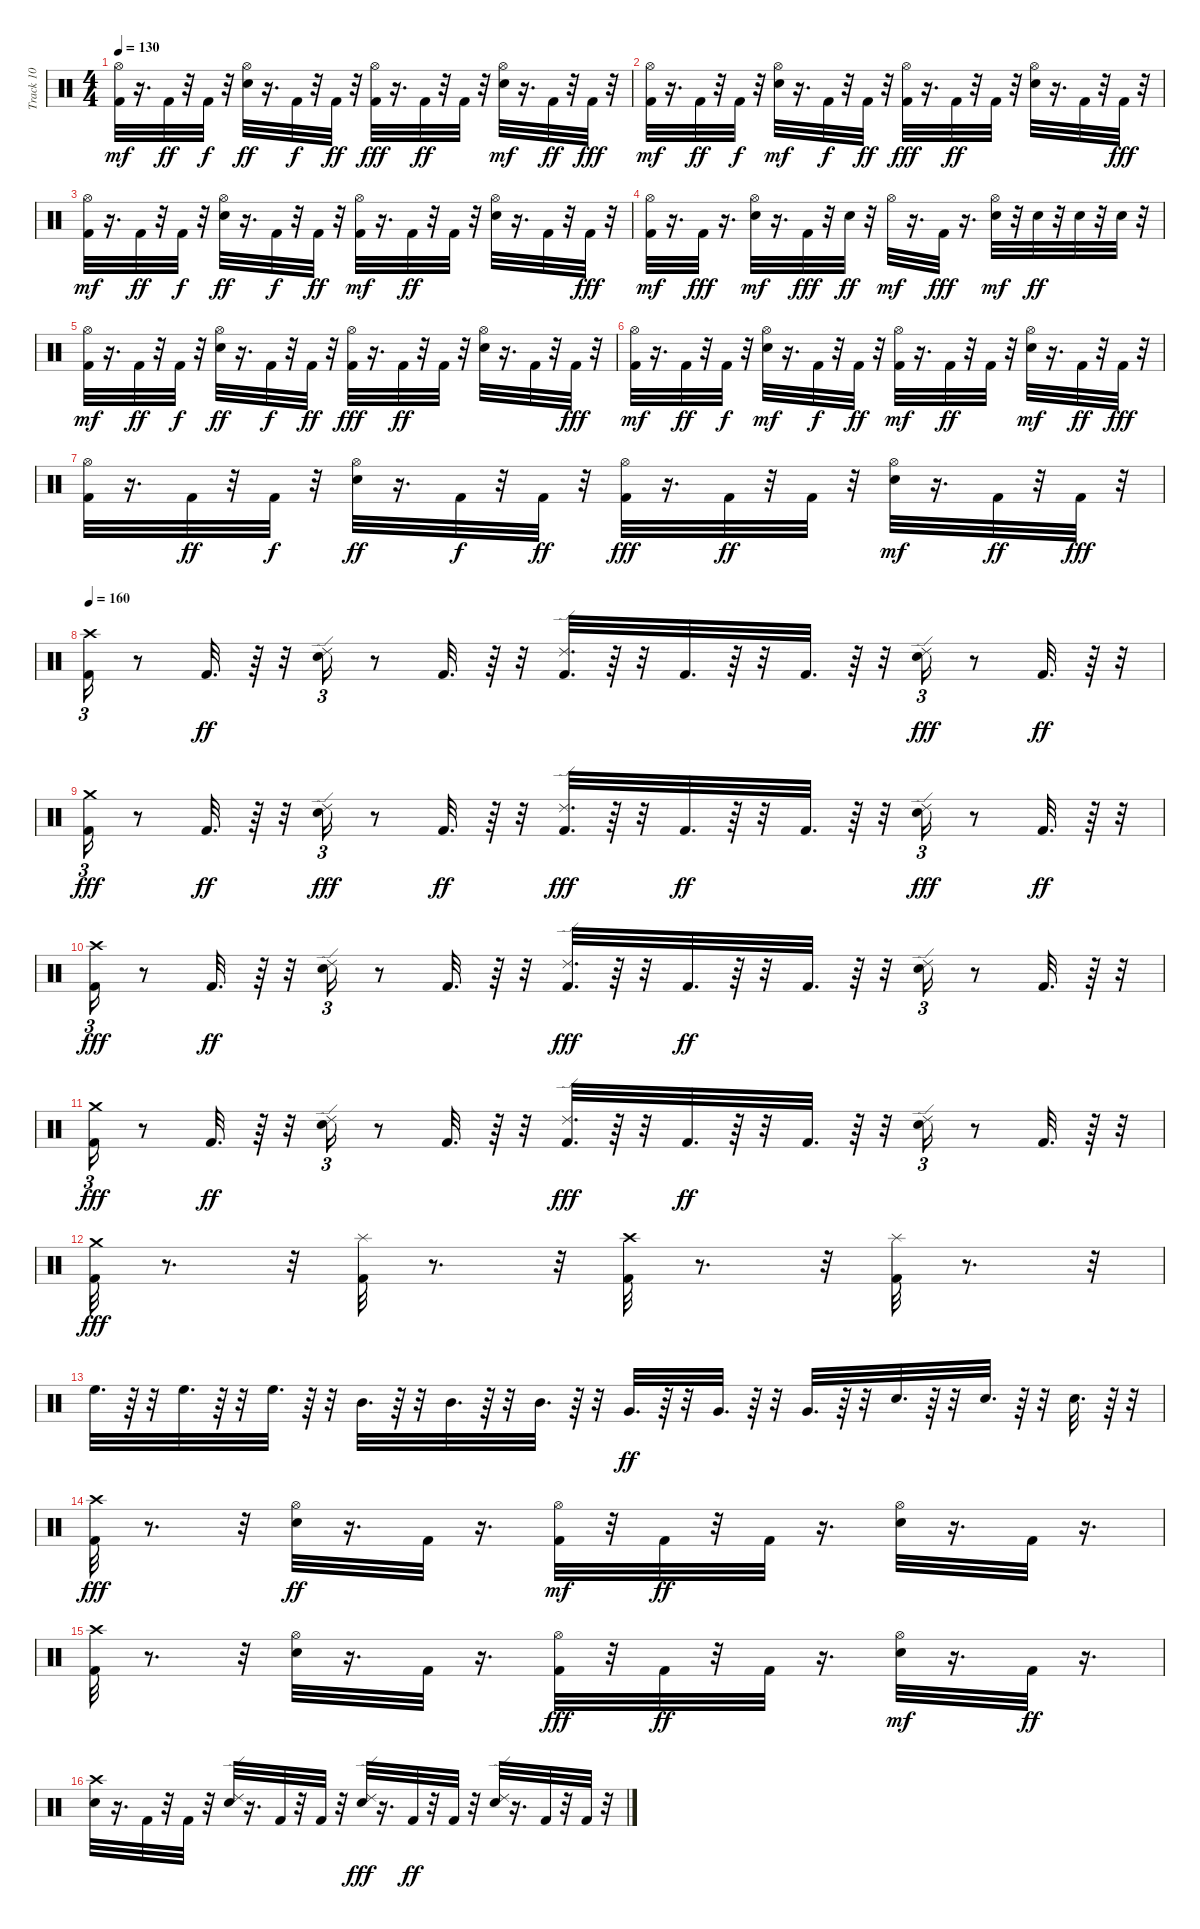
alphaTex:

\track ("Track 10" "Track 10") {instrument percussion}
\staff {score}
\articulation defaults
\ts (4 4)
\tempo 130
\clef neutral
\ks c
("Kick (hit) 2" "Hi-Hat (open)").32{dy mf} r.16{d} "Kick (hit) 2".32{dy ff} r.32 "Kick (hit) 2".32{dy f} r.32 ("Hi-Hat (open)" "Electric Snare (hit)").32{dy ff} r.16{d} "Kick (hit) 2".32{dy f} r.32 "Kick (hit) 2".32{dy ff} r.32 ("Hi-Hat (open)" "Kick (hit) 2").32{dy fff} r.16{d} "Kick (hit) 2".32{dy ff} r.32 "Kick (hit) 2".32 r.32 ("Electric Snare (hit)" "Hi-Hat (open)").32{dy mf} r.16{d} "Kick (hit) 2".32{dy ff} r.32 "Kick (hit) 2".32{dy fff} r.32 |
("Kick (hit) 2" "Hi-Hat (open)").32{dy mf} r.16{d} "Kick (hit) 2".32{dy ff} r.32 "Kick (hit) 2".32{dy f} r.32 ("Electric Snare (hit)" "Hi-Hat (open)").32{dy mf} r.16{d} "Kick (hit) 2".32{dy f} r.32 "Kick (hit) 2".32{dy ff} r.32 ("Hi-Hat (open)" "Kick (hit) 2").32{dy fff} r.16{d} "Kick (hit) 2".32{dy ff} r.32 "Kick (hit) 2".32 r.32 ("Hi-Hat (open)" "Electric Snare (hit)").32 r.16{d} "Kick (hit) 2".32 r.32 "Kick (hit) 2".32{dy fff} r.32 |
("Kick (hit) 2" "Hi-Hat (open)").32{dy mf} r.16{d} "Kick (hit) 2".32{dy ff} r.32 "Kick (hit) 2".32{dy f} r.32 ("Hi-Hat (open)" "Electric Snare (hit)").32{dy ff} r.16{d} "Kick (hit) 2".32{dy f} r.32 "Kick (hit) 2".32{dy ff} r.32 ("Kick (hit) 2" "Hi-Hat (open)").32{dy mf} r.16{d} "Kick (hit) 2".32{dy ff} r.32 "Kick (hit) 2".32 r.32 ("Hi-Hat (open)" "Electric Snare (hit)").32 r.16{d} "Kick (hit) 2".32 r.32 "Kick (hit) 2".32{dy fff} r.32 |
("Kick (hit) 2" "Hi-Hat (open)").32{dy mf} r.16{d} "Kick (hit) 2".32{dy fff} r.16{d} ("Electric Snare (hit)" "Hi-Hat (open)").32{dy mf} r.16{d} "Kick (hit) 2".32{dy fff} r.32 "Electric Snare (hit)".32{dy ff} r.32 "Hi-Hat (open)".32{dy mf} r.16{d} "Kick (hit) 2".32{dy fff} r.16{d} ("Electric Snare (hit)" "Hi-Hat (open)").32{dy mf} r.32 "Electric Snare (hit)".32{dy ff} r.32 "Electric Snare (hit)".32 r.32 "Electric Snare (hit)".32 r.32 |
("Kick (hit) 2" "Hi-Hat (open)").32{dy mf} r.16{d} "Kick (hit) 2".32{dy ff} r.32 "Kick (hit) 2".32{dy f} r.32 ("Hi-Hat (open)" "Electric Snare (hit)").32{dy ff} r.16{d} "Kick (hit) 2".32{dy f} r.32 "Kick (hit) 2".32{dy ff} r.32 ("Hi-Hat (open)" "Kick (hit) 2").32{dy fff} r.16{d} "Kick (hit) 2".32{dy ff} r.32 "Kick (hit) 2".32 r.32 ("Hi-Hat (open)" "Electric Snare (hit)").32 r.16{d} "Kick (hit) 2".32 r.32 "Kick (hit) 2".32{dy fff} r.32 |
("Kick (hit) 2" "Hi-Hat (open)").32{dy mf} r.16{d} "Kick (hit) 2".32{dy ff} r.32 "Kick (hit) 2".32{dy f} r.32 ("Electric Snare (hit)" "Hi-Hat (open)").32{dy mf} r.16{d} "Kick (hit) 2".32{dy f} r.32 "Kick (hit) 2".32{dy ff} r.32 ("Kick (hit) 2" "Hi-Hat (open)").32{dy mf} r.16{d} "Kick (hit) 2".32{dy ff} r.32 "Kick (hit) 2".32 r.32 ("Electric Snare (hit)" "Hi-Hat (open)").32{dy mf} r.16{d} "Kick (hit) 2".32{dy ff} r.32 "Kick (hit) 2".32{dy fff} r.32 |
("Hi-Hat (open)" "Kick (hit) 2").32 r.16{d} "Kick (hit) 2".32{dy ff} r.32 "Kick (hit) 2".32{dy f} r.32 ("Hi-Hat (open)" "Electric Snare (hit)").32{dy ff} r.16{d} "Kick (hit) 2".32{dy f} r.32 "Kick (hit) 2".32{dy ff} r.32 ("Hi-Hat (open)" "Kick (hit) 2").32{dy fff} r.16{d} "Kick (hit) 2".32{dy ff} r.32 "Kick (hit) 2".32 r.32 ("Electric Snare (hit)" "Hi-Hat (open)").32{dy mf} r.16{d} "Kick (hit) 2".32{dy ff} r.32 "Kick (hit) 2".32{dy fff} r.32 |
\tempo 160
("Crash high (hit)" "Kick (hit) 2").16{tu (3 2)} r.8 "Kick (hit) 2".32{d dy ff} r.64 r.32 ("Ride (edge) 2" "Electric Snare (hit)").16{tu (3 2)} r.8 "Kick (hit) 2".32{d} r.64 r.32 ("Ride (edge) 2" "Kick (hit) 2").32{d} r.64 r.32 "Kick (hit) 2".32{d} r.64 r.32 "Kick (hit) 2".32{d} r.64 r.32 ("Electric Snare (hit)" "Ride (edge) 2").16{tu (3 2) dy fff} r.8 "Kick (hit) 2".32{d dy ff} r.64 r.32 |
("Kick (hit) 2" "Crash medium (hit)").16{tu (3 2) dy fff} r.8 "Kick (hit) 2".32{d dy ff} r.64 r.32 ("Electric Snare (hit)" "Ride (edge) 2").16{tu (3 2) dy fff} r.8 "Kick (hit) 2".32{d dy ff} r.64 r.32 ("Kick (hit) 2" "Ride (edge) 2").32{d dy fff} r.64 r.32 "Kick (hit) 2".32{d dy ff} r.64 r.32 "Kick (hit) 2".32{d} r.64 r.32 ("Electric Snare (hit)" "Ride (edge) 2").16{tu (3 2) dy fff} r.8 "Kick (hit) 2".32{d dy ff} r.64 r.32 |
("Crash high (hit)" "Kick (hit) 2").16{tu (3 2) dy fff} r.8 "Kick (hit) 2".32{d dy ff} r.64 r.32 ("Ride (edge) 2" "Electric Snare (hit)").16{tu (3 2)} r.8 "Kick (hit) 2".32{d} r.64 r.32 ("Ride (edge) 2" "Kick (hit) 2").32{d dy fff} r.64 r.32 "Kick (hit) 2".32{d dy ff} r.64 r.32 "Kick (hit) 2".32{d} r.64 r.32 ("Ride (edge) 2" "Electric Snare (hit)").16{tu (3 2)} r.8 "Kick (hit) 2".32{d} r.64 r.32 |
("Crash medium (hit)" "Kick (hit) 2").16{tu (3 2) dy fff} r.8 "Kick (hit) 2".32{d dy ff} r.64 r.32 ("Ride (edge) 2" "Electric Snare (hit)").16{tu (3 2)} r.8 "Kick (hit) 2".32{d} r.64 r.32 ("Ride (edge) 2" "Kick (hit) 2").32{d dy fff} r.64 r.32 "Kick (hit) 2".32{d dy ff} r.64 r.32 "Kick (hit) 2".32{d} r.64 r.32 ("Ride (edge) 2" "Electric Snare (hit)").16{tu (3 2)} r.8 "Kick (hit) 2".32{d} r.64 r.32 |
("Crash medium (hit)" "Kick (hit) 2").32{dy fff} r.8{d} r.32 ("Kick (hit) 2" "Splash (hit)").32 r.8{d} r.32 ("Kick (hit) 2" "Crash high (hit)").32 r.8{d} r.32 ("Splash (hit)" "Kick (hit) 2").32 r.8{d} r.32 |
"High Floor Tom (hit)".32{d} r.64 r.32 "High Floor Tom (hit)".32{d} r.64 r.32 "High Floor Tom (hit)".32{d} r.64 r.32 "Mid Tom (hit)".32{d} r.64 r.32 "Mid Tom (hit)".32{d} r.64 r.32 "Mid Tom (hit)".32{d} r.64 r.32 "Very Low Tom (hit)".32{d dy ff} r.64 r.32 "Very Low Tom (hit)".32{d} r.64 r.32 "Very Low Tom (hit)".32{d} r.64 r.32 "Electric Snare (hit)".32{d} r.64 r.32 "Electric Snare (hit)".32{d} r.64 r.32 "Electric Snare (hit)".32{d} r.64 r.32 |
("Kick (hit) 2" "Crash high (hit)").32{dy fff} r.8{d} r.32 ("Hi-Hat (open)" "Electric Snare (hit)").32{dy ff} r.16{d} "Kick (hit) 2".32 r.16{d} ("Kick (hit) 2" "Hi-Hat (open)").32{dy mf} r.32 "Kick (hit) 2".32{dy ff} r.32 "Kick (hit) 2".32 r.16{d} ("Hi-Hat (open)" "Electric Snare (hit)").32 r.16{d} "Kick (hit) 2".32 r.16{d} |
("Kick (hit) 2" "Crash high (hit)").32 r.8{d} r.32 ("Hi-Hat (open)" "Electric Snare (hit)").32 r.16{d} "Kick (hit) 2".32 r.16{d} ("Hi-Hat (open)" "Kick (hit) 2").32{dy fff} r.32 "Kick (hit) 2".32{dy ff} r.32 "Kick (hit) 2".32 r.16{d} ("Electric Snare (hit)" "Hi-Hat (open)").32{dy mf} r.16{d} "Kick (hit) 2".32{dy ff} r.16{d} |
("Crash high (hit)" "Electric Snare (hit)").32 r.16{d} "Kick (hit) 2".32 r.32 "Kick (hit) 2".32 r.32 ("Ride (edge) 2" "Electric Snare (hit)").32 r.16{d} "Kick (hit) 2".32 r.32 "Kick (hit) 2".32 r.32 ("Electric Snare (hit)" "Ride (edge) 2").32{dy fff} r.16{d} "Kick (hit) 2".32{dy ff} r.32 "Kick (hit) 2".32 r.32 ("Ride (edge) 2" "Electric Snare (hit)").32 r.16{d} "Kick (hit) 2".32 r.32 "Kick (hit) 2".32 r.32
